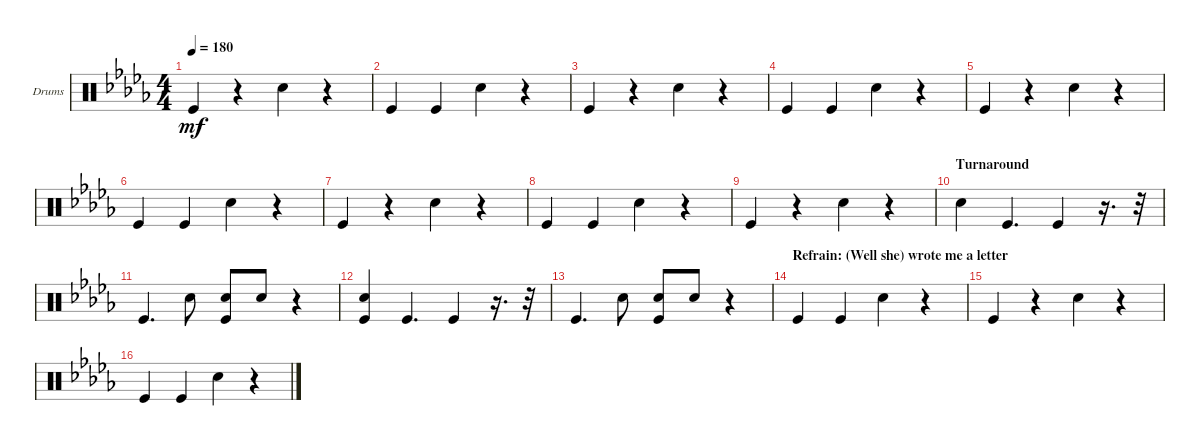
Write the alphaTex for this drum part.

\bracketExtendMode groupsimilarinstruments
\firstSystemTrackNameOrientation horizontal
\otherSystemsTrackNameOrientation horizontal
\track ("Drums" "Drums") {instrument percussion}
\staff {score}
\articulation defaults
\ts (4 4)
\tempo 180
\clef neutral
\ks bbminor "Kick (hit)".4{dy mf}
r.4 "Snare (hit) 2".4 r.4 |
"Kick (hit)".4 "Kick (hit)".4 "Snare (hit) 2".4 r.4 |
"Kick (hit)".4 r.4 "Snare (hit) 2".4 r.4 |
"Kick (hit)".4 "Kick (hit)".4 "Snare (hit) 2".4 r.4 |
"Kick (hit)".4 r.4 "Snare (hit) 2".4 r.4 |
"Kick (hit)".4 "Kick (hit)".4 "Snare (hit) 2".4 r.4 |
"Kick (hit)".4 r.4 "Snare (hit) 2".4 r.4 |
"Kick (hit)".4 "Kick (hit)".4 "Snare (hit) 2".4 r.4 |
"Kick (hit)".4 r.4 "Snare (hit) 2".4 r.4 |
\section ("" "Turnaround")
"Snare (hit) 2".4 "Kick (hit)".4{d} "Kick (hit)".4 r.16{d} r.32 |
"Kick (hit)".4{d} "Snare (hit) 2".8 ("Kick (hit)" "Snare (hit) 2").8 "Snare (hit) 2".8 r.4 |
("Kick (hit)" "Snare (hit) 2").4 "Kick (hit)".4{d} "Kick (hit)".4 r.16{d} r.32 |
"Kick (hit)".4{d} "Snare (hit) 2".8 ("Kick (hit)" "Snare (hit) 2").8 "Snare (hit) 2".8 r.4 |
\section ("" "Refrain: (Well she) wrote me a letter")
"Kick (hit)".4 "Kick (hit)".4 "Snare (hit) 2".4 r.4 |
"Kick (hit)".4 r.4 "Snare (hit) 2".4 r.4 |
"Kick (hit)".4 "Kick (hit)".4 "Snare (hit) 2".4 r.4
